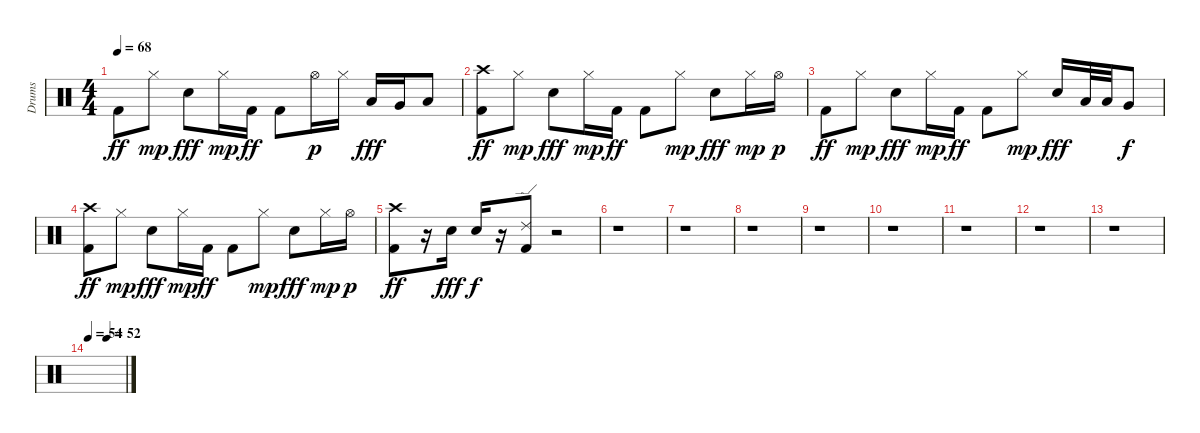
\track ("Drums" "Drums") {instrument percussion}
\staff {score}
\articulation defaults
\ts (4 4)
\tempo 68
\clef neutral
\ks c "Kick (hit) 2".8{dy ff} "Hi-Hat (closed)".8{dy mp} "Electric Snare (hit)".8{dy fff} "Hi-Hat (closed)".16{dy mp} "Kick (hit) 2".16{dy ff} "Kick (hit) 2".8 "Hi-Hat (open)".16{dy p} "Hi-Hat (closed)".16 "Low Tom (hit)".16{dy fff} "Very Low Tom (hit)".16 "Low Floor Tom (hit)".8
|
("Crash high (hit)" "Kick (hit) 2").8{dy ff} "Hi-Hat (closed)".8{dy mp} "Electric Snare (hit)".8{dy fff} "Hi-Hat (closed)".16{dy mp} "Kick (hit) 2".16{dy ff} "Kick (hit) 2".8 "Hi-Hat (closed)".8{dy mp} "Electric Snare (hit)".8{dy fff} "Hi-Hat (closed)".16{dy mp} "Hi-Hat (open)".16{dy p} |
"Kick (hit) 2".8{dy ff} "Hi-Hat (closed)".8{dy mp} "Electric Snare (hit)".8{dy fff} "Hi-Hat (closed)".16{dy mp} "Kick (hit) 2".16{dy ff} "Kick (hit) 2".8 "Hi-Hat (closed)".8{dy mp} "Electric Snare (hit)".16{dy fff} "Low Tom (hit)".32 "Low Tom (hit)".32 "Very Low Tom (hit)".8{dy f} |
("Crash high (hit)" "Kick (hit) 2").8{dy ff} "Hi-Hat (closed)".8{dy mp} "Electric Snare (hit)".8{dy fff} "Hi-Hat (closed)".16{dy mp} "Kick (hit) 2".16{dy ff} "Kick (hit) 2".8 "Hi-Hat (closed)".8{dy mp} "Electric Snare (hit)".8{dy fff} "Hi-Hat (closed)".16{dy mp} "Hi-Hat (open)".16{dy p} |
("Crash high (hit)" "Kick (hit) 2").8{dy ff} r.16 "Electric Snare (hit)".16{dy fff} "Electric Snare (hit)".16{dy f} r.16 ("Ride (edge) 2" "Kick (hit) 2").8 r.2 |
r.1 |
r.1 |
r.1 |
r.1 |
r.1 |
r.1 |
r.1 |
r.1 |
\tempo 54
\tempo (52 0.5)
